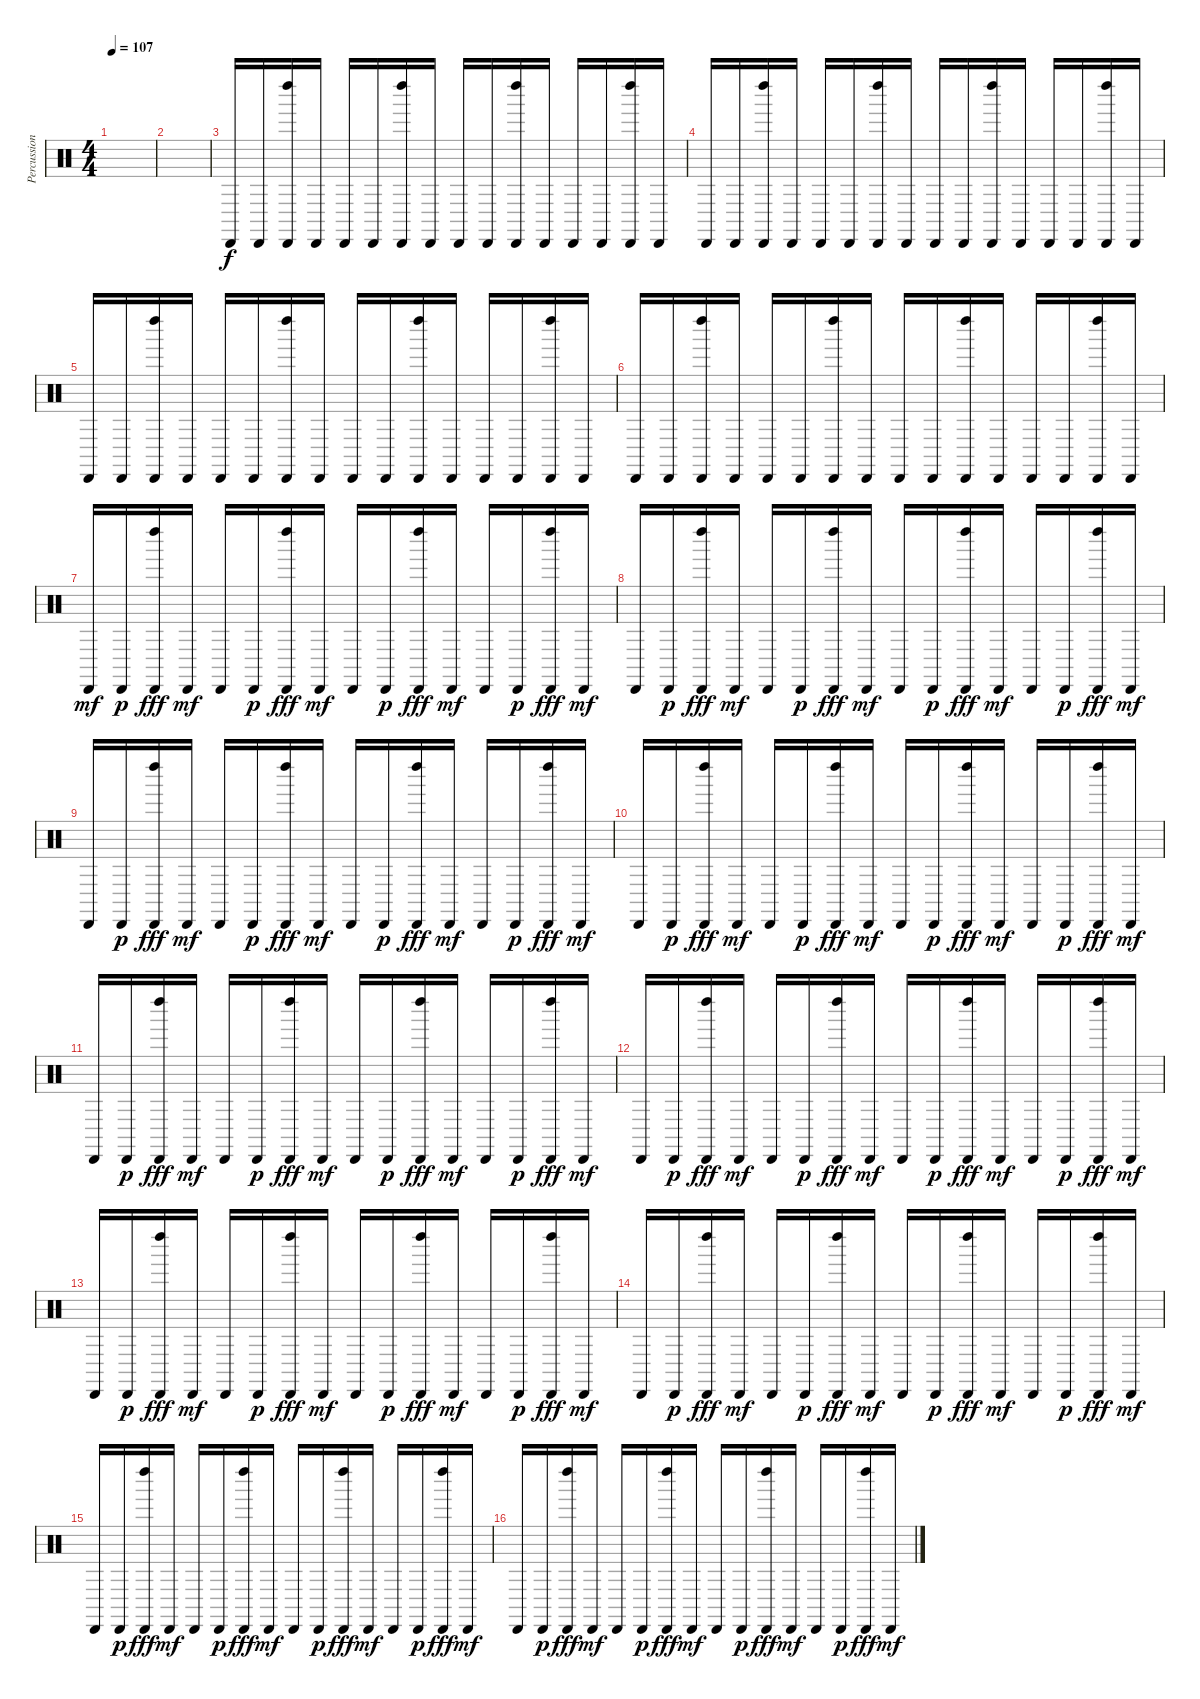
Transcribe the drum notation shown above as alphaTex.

\track ("Percussions" "Percussion") {instrument percussion}
\staff {score}
\articulation defaults
\ts (4 4)
\tempo 107
\clef neutral
\ks c
|
|
"Cabasa (hit)".16 "Cabasa (hit)".16 ("Cabasa (hit)" "Left Maraca (hit)").16 "Cabasa (hit)".16 "Cabasa (hit)".16 "Cabasa (hit)".16 ("Cabasa (hit)" "Left Maraca (hit)").16 "Cabasa (hit)".16 "Cabasa (hit)".16 "Cabasa (hit)".16 ("Cabasa (hit)" "Left Maraca (hit)").16 "Cabasa (hit)".16 "Cabasa (hit)".16 "Cabasa (hit)".16 ("Cabasa (hit)" "Left Maraca (hit)").16 "Cabasa (hit)".16 |
"Cabasa (hit)".16 "Cabasa (hit)".16 ("Cabasa (hit)" "Left Maraca (hit)").16 "Cabasa (hit)".16 "Cabasa (hit)".16 "Cabasa (hit)".16 ("Cabasa (hit)" "Left Maraca (hit)").16 "Cabasa (hit)".16 "Cabasa (hit)".16 "Cabasa (hit)".16 ("Cabasa (hit)" "Left Maraca (hit)").16 "Cabasa (hit)".16 "Cabasa (hit)".16 "Cabasa (hit)".16 ("Cabasa (hit)" "Left Maraca (hit)").16 "Cabasa (hit)".16 |
"Cabasa (hit)".16 "Cabasa (hit)".16 ("Cabasa (hit)" "Left Maraca (hit)").16 "Cabasa (hit)".16 "Cabasa (hit)".16 "Cabasa (hit)".16 ("Cabasa (hit)" "Left Maraca (hit)").16 "Cabasa (hit)".16 "Cabasa (hit)".16 "Cabasa (hit)".16 ("Cabasa (hit)" "Left Maraca (hit)").16 "Cabasa (hit)".16 "Cabasa (hit)".16 "Cabasa (hit)".16 ("Cabasa (hit)" "Left Maraca (hit)").16 "Cabasa (hit)".16 |
"Cabasa (hit)".16 "Cabasa (hit)".16 ("Cabasa (hit)" "Left Maraca (hit)").16 "Cabasa (hit)".16 "Cabasa (hit)".16 "Cabasa (hit)".16 ("Cabasa (hit)" "Left Maraca (hit)").16 "Cabasa (hit)".16 "Cabasa (hit)".16 "Cabasa (hit)".16 ("Cabasa (hit)" "Left Maraca (hit)").16 "Cabasa (hit)".16 "Cabasa (hit)".16 "Cabasa (hit)".16 ("Cabasa (hit)" "Left Maraca (hit)").16 "Cabasa (hit)".16 |
"Cabasa (hit)".16{dy mf} "Cabasa (hit)".16{dy p} ("Cabasa (hit)" "Left Maraca (hit)").16{dy fff} "Cabasa (hit)".16{dy mf} "Cabasa (hit)".16 "Cabasa (hit)".16{dy p} ("Cabasa (hit)" "Left Maraca (hit)").16{dy fff} "Cabasa (hit)".16{dy mf} "Cabasa (hit)".16 "Cabasa (hit)".16{dy p} ("Cabasa (hit)" "Left Maraca (hit)").16{dy fff} "Cabasa (hit)".16{dy mf} "Cabasa (hit)".16 "Cabasa (hit)".16{dy p} ("Cabasa (hit)" "Left Maraca (hit)").16{dy fff} "Cabasa (hit)".16{dy mf} |
"Cabasa (hit)".16 "Cabasa (hit)".16{dy p} ("Cabasa (hit)" "Left Maraca (hit)").16{dy fff} "Cabasa (hit)".16{dy mf} "Cabasa (hit)".16 "Cabasa (hit)".16{dy p} ("Cabasa (hit)" "Left Maraca (hit)").16{dy fff} "Cabasa (hit)".16{dy mf} "Cabasa (hit)".16 "Cabasa (hit)".16{dy p} ("Cabasa (hit)" "Left Maraca (hit)").16{dy fff} "Cabasa (hit)".16{dy mf} "Cabasa (hit)".16 "Cabasa (hit)".16{dy p} ("Cabasa (hit)" "Left Maraca (hit)").16{dy fff} "Cabasa (hit)".16{dy mf} |
"Cabasa (hit)".16 "Cabasa (hit)".16{dy p} ("Cabasa (hit)" "Left Maraca (hit)").16{dy fff} "Cabasa (hit)".16{dy mf} "Cabasa (hit)".16 "Cabasa (hit)".16{dy p} ("Cabasa (hit)" "Left Maraca (hit)").16{dy fff} "Cabasa (hit)".16{dy mf} "Cabasa (hit)".16 "Cabasa (hit)".16{dy p} ("Cabasa (hit)" "Left Maraca (hit)").16{dy fff} "Cabasa (hit)".16{dy mf} "Cabasa (hit)".16 "Cabasa (hit)".16{dy p} ("Cabasa (hit)" "Left Maraca (hit)").16{dy fff} "Cabasa (hit)".16{dy mf} |
"Cabasa (hit)".16 "Cabasa (hit)".16{dy p} ("Cabasa (hit)" "Left Maraca (hit)").16{dy fff} "Cabasa (hit)".16{dy mf} "Cabasa (hit)".16 "Cabasa (hit)".16{dy p} ("Cabasa (hit)" "Left Maraca (hit)").16{dy fff} "Cabasa (hit)".16{dy mf} "Cabasa (hit)".16 "Cabasa (hit)".16{dy p} ("Cabasa (hit)" "Left Maraca (hit)").16{dy fff} "Cabasa (hit)".16{dy mf} "Cabasa (hit)".16 "Cabasa (hit)".16{dy p} ("Cabasa (hit)" "Left Maraca (hit)").16{dy fff} "Cabasa (hit)".16{dy mf} |
"Cabasa (hit)".16 "Cabasa (hit)".16{dy p} ("Cabasa (hit)" "Left Maraca (hit)").16{dy fff} "Cabasa (hit)".16{dy mf} "Cabasa (hit)".16 "Cabasa (hit)".16{dy p} ("Cabasa (hit)" "Left Maraca (hit)").16{dy fff} "Cabasa (hit)".16{dy mf} "Cabasa (hit)".16 "Cabasa (hit)".16{dy p} ("Cabasa (hit)" "Left Maraca (hit)").16{dy fff} "Cabasa (hit)".16{dy mf} "Cabasa (hit)".16 "Cabasa (hit)".16{dy p} ("Cabasa (hit)" "Left Maraca (hit)").16{dy fff} "Cabasa (hit)".16{dy mf} |
"Cabasa (hit)".16 "Cabasa (hit)".16{dy p} ("Cabasa (hit)" "Left Maraca (hit)").16{dy fff} "Cabasa (hit)".16{dy mf} "Cabasa (hit)".16 "Cabasa (hit)".16{dy p} ("Cabasa (hit)" "Left Maraca (hit)").16{dy fff} "Cabasa (hit)".16{dy mf} "Cabasa (hit)".16 "Cabasa (hit)".16{dy p} ("Cabasa (hit)" "Left Maraca (hit)").16{dy fff} "Cabasa (hit)".16{dy mf} "Cabasa (hit)".16 "Cabasa (hit)".16{dy p} ("Cabasa (hit)" "Left Maraca (hit)").16{dy fff} "Cabasa (hit)".16{dy mf} |
"Cabasa (hit)".16 "Cabasa (hit)".16{dy p} ("Cabasa (hit)" "Left Maraca (hit)").16{dy fff} "Cabasa (hit)".16{dy mf} "Cabasa (hit)".16 "Cabasa (hit)".16{dy p} ("Cabasa (hit)" "Left Maraca (hit)").16{dy fff} "Cabasa (hit)".16{dy mf} "Cabasa (hit)".16 "Cabasa (hit)".16{dy p} ("Cabasa (hit)" "Left Maraca (hit)").16{dy fff} "Cabasa (hit)".16{dy mf} "Cabasa (hit)".16 "Cabasa (hit)".16{dy p} ("Cabasa (hit)" "Left Maraca (hit)").16{dy fff} "Cabasa (hit)".16{dy mf} |
"Cabasa (hit)".16 "Cabasa (hit)".16{dy p} ("Cabasa (hit)" "Left Maraca (hit)").16{dy fff} "Cabasa (hit)".16{dy mf} "Cabasa (hit)".16 "Cabasa (hit)".16{dy p} ("Cabasa (hit)" "Left Maraca (hit)").16{dy fff} "Cabasa (hit)".16{dy mf} "Cabasa (hit)".16 "Cabasa (hit)".16{dy p} ("Cabasa (hit)" "Left Maraca (hit)").16{dy fff} "Cabasa (hit)".16{dy mf} "Cabasa (hit)".16 "Cabasa (hit)".16{dy p} ("Cabasa (hit)" "Left Maraca (hit)").16{dy fff} "Cabasa (hit)".16{dy mf} |
"Cabasa (hit)".16 "Cabasa (hit)".16{dy p} ("Cabasa (hit)" "Left Maraca (hit)").16{dy fff} "Cabasa (hit)".16{dy mf} "Cabasa (hit)".16 "Cabasa (hit)".16{dy p} ("Cabasa (hit)" "Left Maraca (hit)").16{dy fff} "Cabasa (hit)".16{dy mf} "Cabasa (hit)".16 "Cabasa (hit)".16{dy p} ("Cabasa (hit)" "Left Maraca (hit)").16{dy fff} "Cabasa (hit)".16{dy mf} "Cabasa (hit)".16 "Cabasa (hit)".16{dy p} ("Cabasa (hit)" "Left Maraca (hit)").16{dy fff} "Cabasa (hit)".16{dy mf} |
"Cabasa (hit)".16 "Cabasa (hit)".16{dy p} ("Cabasa (hit)" "Left Maraca (hit)").16{dy fff} "Cabasa (hit)".16{dy mf} "Cabasa (hit)".16 "Cabasa (hit)".16{dy p} ("Cabasa (hit)" "Left Maraca (hit)").16{dy fff} "Cabasa (hit)".16{dy mf} "Cabasa (hit)".16 "Cabasa (hit)".16{dy p} ("Cabasa (hit)" "Left Maraca (hit)").16{dy fff} "Cabasa (hit)".16{dy mf} "Cabasa (hit)".16 "Cabasa (hit)".16{dy p} ("Cabasa (hit)" "Left Maraca (hit)").16{dy fff} "Cabasa (hit)".16{dy mf}
